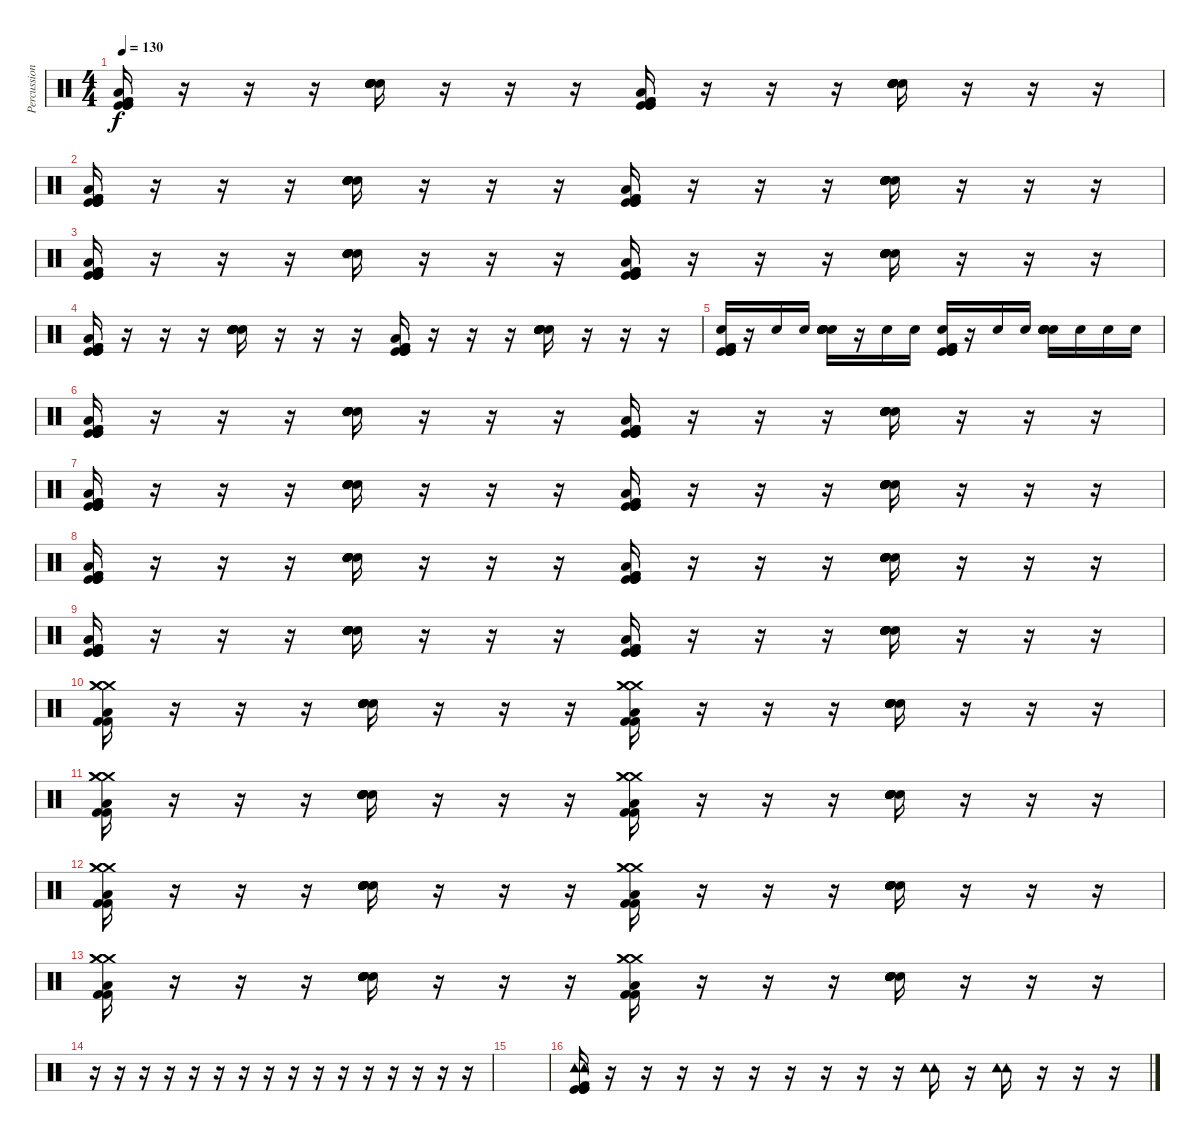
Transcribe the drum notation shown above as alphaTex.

\track ("Percussion" "Percussion") {instrument percussion}
\staff {score}
\articulation defaults
\ts (4 4)
\tempo 130
\clef neutral
\ks c
("Kick (hit)" "Kick (hit)" "Kick (hit)" "Kick (hit) 2" "Kick (hit) 2" "Low Floor Tom (hit)").16{dy f} r.16 r.16 r.16 ("Snare (hit) 2" "Snare (hit) 2" "Snare (hit) 2" "Electric Snare (hit)" "Electric Snare (hit)" "Electric Snare (hit)").16 r.16 r.16 r.16 ("Kick (hit)" "Kick (hit)" "Kick (hit)" "Kick (hit) 2" "Kick (hit) 2" "Low Floor Tom (hit)").16 r.16 r.16 r.16 ("Snare (hit) 2" "Snare (hit) 2" "Snare (hit) 2" "Electric Snare (hit)" "Electric Snare (hit)" "Electric Snare (hit)").16 r.16 r.16 r.16 |
("Kick (hit)" "Kick (hit)" "Kick (hit)" "Kick (hit) 2" "Kick (hit) 2" "Low Floor Tom (hit)").16 r.16 r.16 r.16 ("Snare (hit) 2" "Snare (hit) 2" "Snare (hit) 2" "Electric Snare (hit)" "Electric Snare (hit)" "Electric Snare (hit)").16 r.16 r.16 r.16 ("Kick (hit)" "Kick (hit)" "Kick (hit)" "Kick (hit) 2" "Kick (hit) 2" "Low Floor Tom (hit)").16 r.16 r.16 r.16 ("Snare (hit) 2" "Snare (hit) 2" "Snare (hit) 2" "Electric Snare (hit)" "Electric Snare (hit)" "Electric Snare (hit)").16 r.16 r.16 r.16 |
("Kick (hit)" "Kick (hit)" "Kick (hit)" "Kick (hit) 2" "Kick (hit) 2" "Low Floor Tom (hit)").16 r.16 r.16 r.16 ("Snare (hit) 2" "Snare (hit) 2" "Snare (hit) 2" "Electric Snare (hit)" "Electric Snare (hit)" "Electric Snare (hit)").16 r.16 r.16 r.16 ("Kick (hit)" "Kick (hit)" "Kick (hit)" "Kick (hit) 2" "Kick (hit) 2" "Low Floor Tom (hit)").16 r.16 r.16 r.16 ("Snare (hit) 2" "Snare (hit) 2" "Snare (hit) 2" "Electric Snare (hit)" "Electric Snare (hit)" "Electric Snare (hit)").16 r.16 r.16 r.16 |
("Kick (hit)" "Kick (hit)" "Kick (hit)" "Kick (hit) 2" "Kick (hit) 2" "Low Floor Tom (hit)").16 r.16 r.16 r.16 ("Snare (hit) 2" "Snare (hit) 2" "Snare (hit) 2" "Electric Snare (hit)" "Electric Snare (hit)" "Electric Snare (hit)").16 r.16 r.16 r.16 ("Kick (hit)" "Kick (hit)" "Kick (hit)" "Kick (hit) 2" "Kick (hit) 2" "Low Floor Tom (hit)").16 r.16 r.16 r.16 ("Snare (hit) 2" "Snare (hit) 2" "Snare (hit) 2" "Electric Snare (hit)" "Electric Snare (hit)" "Electric Snare (hit)").16 r.16 r.16 r.16 |
("Kick (hit)" "Kick (hit)" "Kick (hit)" "Kick (hit) 2" "Kick (hit) 2" "Electric Snare (hit)").16 r.16 "Electric Snare (hit)".16 "Electric Snare (hit)".16 ("Snare (hit) 2" "Snare (hit) 2" "Snare (hit) 2" "Electric Snare (hit)" "Electric Snare (hit)" "Electric Snare (hit)").16 r.16 "Electric Snare (hit)".16 "Electric Snare (hit)".16 ("Kick (hit)" "Kick (hit)" "Kick (hit)" "Kick (hit) 2" "Kick (hit) 2" "Electric Snare (hit)").16 r.16 "Electric Snare (hit)".16 "Electric Snare (hit)".16 ("Snare (hit) 2" "Snare (hit) 2" "Snare (hit) 2" "Electric Snare (hit)" "Electric Snare (hit)" "Electric Snare (hit)").16 "Electric Snare (hit)".16 "Electric Snare (hit)".16 "Electric Snare (hit)".16 |
("Kick (hit)" "Kick (hit)" "Kick (hit)" "Kick (hit) 2" "Kick (hit) 2" "Low Floor Tom (hit)").16 r.16 r.16 r.16 ("Snare (hit) 2" "Snare (hit) 2" "Snare (hit) 2" "Electric Snare (hit)" "Electric Snare (hit)" "Electric Snare (hit)").16 r.16 r.16 r.16 ("Kick (hit)" "Kick (hit)" "Kick (hit)" "Kick (hit) 2" "Kick (hit) 2" "Low Floor Tom (hit)").16 r.16 r.16 r.16 ("Snare (hit) 2" "Snare (hit) 2" "Snare (hit) 2" "Electric Snare (hit)" "Electric Snare (hit)" "Electric Snare (hit)").16 r.16 r.16 r.16 |
("Kick (hit)" "Kick (hit)" "Kick (hit)" "Kick (hit) 2" "Kick (hit) 2" "Low Floor Tom (hit)").16 r.16 r.16 r.16 ("Snare (hit) 2" "Snare (hit) 2" "Snare (hit) 2" "Electric Snare (hit)" "Electric Snare (hit)" "Electric Snare (hit)").16 r.16 r.16 r.16 ("Kick (hit)" "Kick (hit)" "Kick (hit)" "Kick (hit) 2" "Kick (hit) 2" "Low Floor Tom (hit)").16 r.16 r.16 r.16 ("Snare (hit) 2" "Snare (hit) 2" "Snare (hit) 2" "Electric Snare (hit)" "Electric Snare (hit)" "Electric Snare (hit)").16 r.16 r.16 r.16 |
("Kick (hit)" "Kick (hit)" "Kick (hit)" "Kick (hit) 2" "Kick (hit) 2" "Low Floor Tom (hit)").16 r.16 r.16 r.16 ("Snare (hit) 2" "Snare (hit) 2" "Snare (hit) 2" "Electric Snare (hit)" "Electric Snare (hit)" "Electric Snare (hit)").16 r.16 r.16 r.16 ("Kick (hit)" "Kick (hit)" "Kick (hit)" "Kick (hit) 2" "Kick (hit) 2" "Low Floor Tom (hit)").16 r.16 r.16 r.16 ("Snare (hit) 2" "Snare (hit) 2" "Snare (hit) 2" "Electric Snare (hit)" "Electric Snare (hit)" "Electric Snare (hit)").16 r.16 r.16 r.16 |
("Kick (hit)" "Kick (hit)" "Kick (hit)" "Kick (hit) 2" "Kick (hit) 2" "Low Floor Tom (hit)").16 r.16 r.16 r.16 ("Snare (hit) 2" "Snare (hit) 2" "Snare (hit) 2" "Electric Snare (hit)" "Electric Snare (hit)" "Electric Snare (hit)").16 r.16 r.16 r.16 ("Kick (hit)" "Kick (hit)" "Kick (hit)" "Kick (hit) 2" "Kick (hit) 2" "Low Floor Tom (hit)").16 r.16 r.16 r.16 ("Snare (hit) 2" "Snare (hit) 2" "Snare (hit) 2" "Electric Snare (hit)" "Electric Snare (hit)" "Electric Snare (hit)").16 r.16 r.16 r.16 |
("Crash medium (hit)" "Crash medium (hit)" "Crash medium (hit)" "Kick (hit) 2" "Kick (hit) 2" "Low Floor Tom (hit)").16 r.16 r.16 r.16 ("Snare (hit) 2" "Snare (hit) 2" "Snare (hit) 2" "Electric Snare (hit)" "Electric Snare (hit)" "Electric Snare (hit)").16 r.16 r.16 r.16 ("Crash medium (hit)" "Crash medium (hit)" "Crash medium (hit)" "Kick (hit) 2" "Kick (hit) 2" "Low Floor Tom (hit)").16 r.16 r.16 r.16 ("Snare (hit) 2" "Snare (hit) 2" "Snare (hit) 2" "Electric Snare (hit)" "Electric Snare (hit)" "Electric Snare (hit)").16 r.16 r.16 r.16 |
("Crash medium (hit)" "Crash medium (hit)" "Crash medium (hit)" "Kick (hit) 2" "Kick (hit) 2" "Low Floor Tom (hit)").16 r.16 r.16 r.16 ("Snare (hit) 2" "Snare (hit) 2" "Snare (hit) 2" "Electric Snare (hit)" "Electric Snare (hit)" "Electric Snare (hit)").16 r.16 r.16 r.16 ("Crash medium (hit)" "Crash medium (hit)" "Crash medium (hit)" "Kick (hit) 2" "Kick (hit) 2" "Low Floor Tom (hit)").16 r.16 r.16 r.16 ("Snare (hit) 2" "Snare (hit) 2" "Snare (hit) 2" "Electric Snare (hit)" "Electric Snare (hit)" "Electric Snare (hit)").16 r.16 r.16 r.16 |
("Crash medium (hit)" "Crash medium (hit)" "Crash medium (hit)" "Kick (hit) 2" "Kick (hit) 2" "Low Floor Tom (hit)").16 r.16 r.16 r.16 ("Snare (hit) 2" "Snare (hit) 2" "Snare (hit) 2" "Electric Snare (hit)" "Electric Snare (hit)" "Electric Snare (hit)").16 r.16 r.16 r.16 ("Crash medium (hit)" "Crash medium (hit)" "Crash medium (hit)" "Kick (hit) 2" "Kick (hit) 2" "Low Floor Tom (hit)").16 r.16 r.16 r.16 ("Snare (hit) 2" "Snare (hit) 2" "Snare (hit) 2" "Electric Snare (hit)" "Electric Snare (hit)" "Electric Snare (hit)").16 r.16 r.16 r.16 |
("Crash medium (hit)" "Crash medium (hit)" "Crash medium (hit)" "Kick (hit) 2" "Kick (hit) 2" "Low Floor Tom (hit)").16 r.16 r.16 r.16 ("Snare (hit) 2" "Snare (hit) 2" "Snare (hit) 2" "Electric Snare (hit)" "Electric Snare (hit)" "Electric Snare (hit)").16 r.16 r.16 r.16 ("Crash medium (hit)" "Crash medium (hit)" "Crash medium (hit)" "Kick (hit) 2" "Kick (hit) 2" "Low Floor Tom (hit)").16 r.16 r.16 r.16 ("Snare (hit) 2" "Snare (hit) 2" "Snare (hit) 2" "Electric Snare (hit)" "Electric Snare (hit)" "Electric Snare (hit)").16 r.16 r.16 r.16 |
r.16 r.16 r.16 r.16 r.16 r.16 r.16 r.16 r.16 r.16 r.16 r.16 r.16 r.16 r.16 r.16 |
|
("Kick (hit)" "Kick (hit)" "Kick (hit)" "Kick (hit) 2" "Tambourine (hit)" "Tambourine (hit)").16 r.16 r.16 r.16 r.16 r.16 r.16 r.16 r.16 r.16 ("Tambourine (hit)" "Tambourine (hit)" "Tambourine (hit)").16 r.16 ("Tambourine (hit)" "Tambourine (hit)" "Tambourine (hit)").16 r.16 r.16 r.16
